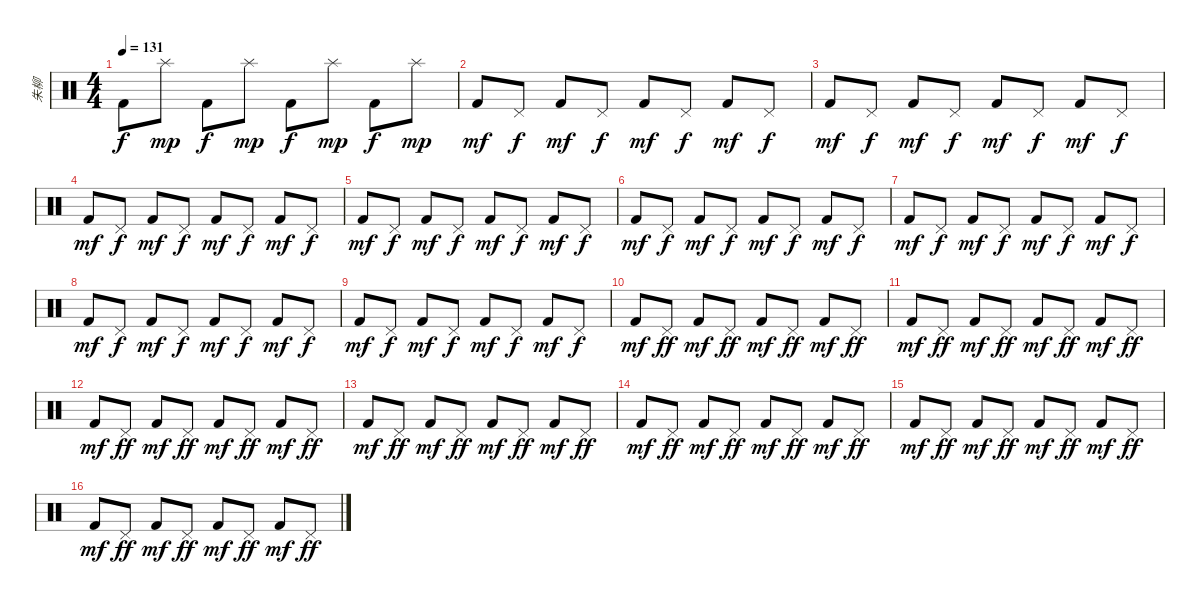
\track ("朱柳" "朱柳") {instrument percussion}
\staff {score}
\articulation defaults
\ts (4 4)
\tempo 131
\clef neutral
\ks c "Kick (hit) 2".8{dy f} "Splash (hit)".8{dy mp} "Kick (hit) 2".8{dy f} "Splash (hit)".8{dy mp} "Kick (hit) 2".8{dy f} "Splash (hit)".8{dy mp} "Kick (hit) 2".8{dy f} "Splash (hit)".8{dy mp}
|
"Kick (hit) 2".8{dy mf} "Pedal Hi-Hat (hit)".8{dy f} "Kick (hit) 2".8{dy mf} "Pedal Hi-Hat (hit)".8{dy f} "Kick (hit) 2".8{dy mf} "Pedal Hi-Hat (hit)".8{dy f} "Kick (hit) 2".8{dy mf} "Pedal Hi-Hat (hit)".8{dy f} |
"Kick (hit) 2".8{dy mf} "Pedal Hi-Hat (hit)".8{dy f} "Kick (hit) 2".8{dy mf} "Pedal Hi-Hat (hit)".8{dy f} "Kick (hit) 2".8{dy mf} "Pedal Hi-Hat (hit)".8{dy f} "Kick (hit) 2".8{dy mf} "Pedal Hi-Hat (hit)".8{dy f} |
"Kick (hit) 2".8{dy mf} "Pedal Hi-Hat (hit)".8{dy f} "Kick (hit) 2".8{dy mf} "Pedal Hi-Hat (hit)".8{dy f} "Kick (hit) 2".8{dy mf} "Pedal Hi-Hat (hit)".8{dy f} "Kick (hit) 2".8{dy mf} "Pedal Hi-Hat (hit)".8{dy f} |
"Kick (hit) 2".8{dy mf} "Pedal Hi-Hat (hit)".8{dy f} "Kick (hit) 2".8{dy mf} "Pedal Hi-Hat (hit)".8{dy f} "Kick (hit) 2".8{dy mf} "Pedal Hi-Hat (hit)".8{dy f} "Kick (hit) 2".8{dy mf} "Pedal Hi-Hat (hit)".8{dy f} |
"Kick (hit) 2".8{dy mf} "Pedal Hi-Hat (hit)".8{dy f} "Kick (hit) 2".8{dy mf} "Pedal Hi-Hat (hit)".8{dy f} "Kick (hit) 2".8{dy mf} "Pedal Hi-Hat (hit)".8{dy f} "Kick (hit) 2".8{dy mf} "Pedal Hi-Hat (hit)".8{dy f} |
"Kick (hit) 2".8{dy mf} "Pedal Hi-Hat (hit)".8{dy f} "Kick (hit) 2".8{dy mf} "Pedal Hi-Hat (hit)".8{dy f} "Kick (hit) 2".8{dy mf} "Pedal Hi-Hat (hit)".8{dy f} "Kick (hit) 2".8{dy mf} "Pedal Hi-Hat (hit)".8{dy f} |
"Kick (hit) 2".8{dy mf} "Pedal Hi-Hat (hit)".8{dy f} "Kick (hit) 2".8{dy mf} "Pedal Hi-Hat (hit)".8{dy f} "Kick (hit) 2".8{dy mf} "Pedal Hi-Hat (hit)".8{dy f} "Kick (hit) 2".8{dy mf} "Pedal Hi-Hat (hit)".8{dy f} |
"Kick (hit) 2".8{dy mf} "Pedal Hi-Hat (hit)".8{dy f} "Kick (hit) 2".8{dy mf} "Pedal Hi-Hat (hit)".8{dy f} "Kick (hit) 2".8{dy mf} "Pedal Hi-Hat (hit)".8{dy f} "Kick (hit) 2".8{dy mf} "Pedal Hi-Hat (hit)".8{dy f} |
"Kick (hit) 2".8{dy mf volume 12} "Pedal Hi-Hat (hit)".8{dy ff} "Kick (hit) 2".8{dy mf} "Pedal Hi-Hat (hit)".8{dy ff} "Kick (hit) 2".8{dy mf} "Pedal Hi-Hat (hit)".8{dy ff} "Kick (hit) 2".8{dy mf} "Pedal Hi-Hat (hit)".8{dy ff} |
"Kick (hit) 2".8{dy mf} "Pedal Hi-Hat (hit)".8{dy ff} "Kick (hit) 2".8{dy mf} "Pedal Hi-Hat (hit)".8{dy ff} "Kick (hit) 2".8{dy mf} "Pedal Hi-Hat (hit)".8{dy ff} "Kick (hit) 2".8{dy mf} "Pedal Hi-Hat (hit)".8{dy ff} |
"Kick (hit) 2".8{dy mf} "Pedal Hi-Hat (hit)".8{dy ff} "Kick (hit) 2".8{dy mf} "Pedal Hi-Hat (hit)".8{dy ff} "Kick (hit) 2".8{dy mf} "Pedal Hi-Hat (hit)".8{dy ff} "Kick (hit) 2".8{dy mf} "Pedal Hi-Hat (hit)".8{dy ff} |
"Kick (hit) 2".8{dy mf} "Pedal Hi-Hat (hit)".8{dy ff} "Kick (hit) 2".8{dy mf} "Pedal Hi-Hat (hit)".8{dy ff} "Kick (hit) 2".8{dy mf} "Pedal Hi-Hat (hit)".8{dy ff} "Kick (hit) 2".8{dy mf} "Pedal Hi-Hat (hit)".8{dy ff} |
"Kick (hit) 2".8{dy mf} "Pedal Hi-Hat (hit)".8{dy ff} "Kick (hit) 2".8{dy mf} "Pedal Hi-Hat (hit)".8{dy ff} "Kick (hit) 2".8{dy mf} "Pedal Hi-Hat (hit)".8{dy ff} "Kick (hit) 2".8{dy mf} "Pedal Hi-Hat (hit)".8{dy ff} |
"Kick (hit) 2".8{dy mf} "Pedal Hi-Hat (hit)".8{dy ff} "Kick (hit) 2".8{dy mf} "Pedal Hi-Hat (hit)".8{dy ff} "Kick (hit) 2".8{dy mf} "Pedal Hi-Hat (hit)".8{dy ff} "Kick (hit) 2".8{dy mf} "Pedal Hi-Hat (hit)".8{dy ff} |
"Kick (hit) 2".8{dy mf} "Pedal Hi-Hat (hit)".8{dy ff} "Kick (hit) 2".8{dy mf} "Pedal Hi-Hat (hit)".8{dy ff} "Kick (hit) 2".8{dy mf} "Pedal Hi-Hat (hit)".8{dy ff} "Kick (hit) 2".8{dy mf} "Pedal Hi-Hat (hit)".8{dy ff}
